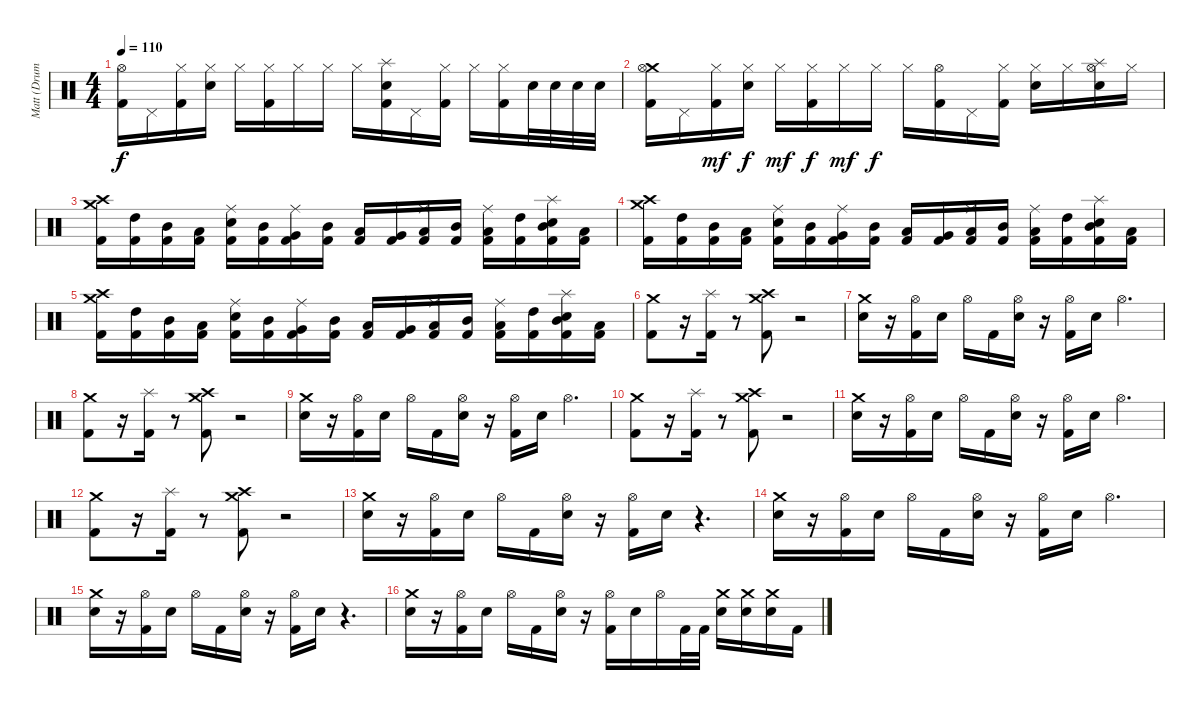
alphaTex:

\track ("Matt (Drums)" "Matt (Drum") {instrument percussion}
\staff {score}
\articulation defaults
\ts (4 4)
\tempo 110
\clef neutral
\ks c
("Hi-Hat (open)" "Kick (hit) 2").16{dy f} "Pedal Hi-Hat (hit)".16 ("Hi-Hat (closed)" "Kick (hit) 2").16 ("Hi-Hat (closed)" "Snare (hit) 2").16 "Hi-Hat (closed)".16 ("Hi-Hat (closed)" "Kick (hit) 2").16 "Hi-Hat (closed)".16 "Hi-Hat (closed)".16 "Hi-Hat (closed)".16 ("Splash (hit)" "Snare (hit) 2" "Kick (hit) 2").16 "Pedal Hi-Hat (hit)".16 ("Hi-Hat (closed)" "Kick (hit) 2").16 "Hi-Hat (closed)".16 ("Hi-Hat (closed)" "Kick (hit) 2").16 "Snare (hit) 2".32 "Snare (hit) 2".32 "Snare (hit) 2".32 "Snare (hit) 2".32 |
("Crash medium (hit)" "Hi-Hat (open)" "Kick (hit) 2").16 "Pedal Hi-Hat (hit)".16 ("Hi-Hat (closed)" "Kick (hit) 2").16{dy mf} ("Hi-Hat (closed)" "Snare (hit) 2").16{dy f} "Hi-Hat (closed)".16{dy mf} ("Hi-Hat (closed)" "Kick (hit) 2").16{dy f} "Hi-Hat (closed)".16{dy mf} "Hi-Hat (closed)".16{dy f} "Hi-Hat (closed)".16 ("Hi-Hat (open)" "Kick (hit) 2").16 "Pedal Hi-Hat (hit)".16 ("Hi-Hat (closed)" "Kick (hit) 2").16 ("Hi-Hat (closed)" "Snare (hit) 2").16 "Hi-Hat (closed)".16 ("Splash (hit)" "Hi-Hat (open)" "Snare (hit) 2").16 "Hi-Hat (closed)".16 |
("Crash medium (hit)" "Crash high (hit)" "Kick (hit) 2").16 ("High Tom (hit)" "Kick (hit) 2").16 ("Mid Tom (hit)" "Kick (hit) 2").16 ("Low Tom (hit)" "Kick (hit) 2").16 ("Ride (middle)" "Snare (hit) 2" "Kick (hit) 2").16 ("Mid Tom (hit)" "Kick (hit) 2").16 ("Ride (middle)" "Very Low Tom (hit)" "Kick (hit) 2").16 ("Mid Tom (hit)" "Kick (hit) 2").16 ("Low Tom (hit)" "Kick (hit) 2").16 ("Very Low Tom (hit)" "Kick (hit) 2").16 ("Ride (middle)" "Low Floor Tom (hit)" "Kick (hit) 2").16 ("Mid Tom (hit)" "Kick (hit) 2").16 ("Ride (middle)" "Low Tom (hit)" "Kick (hit) 2").16 ("High Tom (hit)" "Kick (hit) 2").16 ("Splash (hit)" "Mid Tom (hit)" "Snare (hit) 2" "Kick (hit) 2").16 ("Low Tom (hit)" "Kick (hit) 2").16 |
("Crash medium (hit)" "Crash high (hit)" "Kick (hit) 2").16 ("High Tom (hit)" "Kick (hit) 2").16 ("Mid Tom (hit)" "Kick (hit) 2").16 ("Low Tom (hit)" "Kick (hit) 2").16 ("Ride (middle)" "Snare (hit) 2" "Kick (hit) 2").16 ("Mid Tom (hit)" "Kick (hit) 2").16 ("Ride (middle)" "Very Low Tom (hit)" "Kick (hit) 2").16 ("Mid Tom (hit)" "Kick (hit) 2").16 ("Low Tom (hit)" "Kick (hit) 2").16 ("Very Low Tom (hit)" "Kick (hit) 2").16 ("Ride (middle)" "Low Floor Tom (hit)" "Kick (hit) 2").16 ("Mid Tom (hit)" "Kick (hit) 2").16 ("Ride (middle)" "Low Tom (hit)" "Kick (hit) 2").16 ("High Tom (hit)" "Kick (hit) 2").16 ("Splash (hit)" "Mid Tom (hit)" "Snare (hit) 2" "Kick (hit) 2").16 ("Low Tom (hit)" "Kick (hit) 2").16 |
("Crash medium (hit)" "Crash high (hit)" "Kick (hit) 2").16 ("High Tom (hit)" "Kick (hit) 2").16 ("Mid Tom (hit)" "Kick (hit) 2").16 ("Low Tom (hit)" "Kick (hit) 2").16 ("Ride (middle)" "Snare (hit) 2" "Kick (hit) 2").16 ("Mid Tom (hit)" "Kick (hit) 2").16 ("Ride (middle)" "Very Low Tom (hit)" "Kick (hit) 2").16 ("Mid Tom (hit)" "Kick (hit) 2").16 ("Low Tom (hit)" "Kick (hit) 2").16 ("Very Low Tom (hit)" "Kick (hit) 2").16 ("Ride (middle)" "Low Floor Tom (hit)" "Kick (hit) 2").16 ("Mid Tom (hit)" "Kick (hit) 2").16 ("Ride (middle)" "Low Tom (hit)" "Kick (hit) 2").16 ("High Tom (hit)" "Kick (hit) 2").16 ("Splash (hit)" "Mid Tom (hit)" "Snare (hit) 2" "Kick (hit) 2").16 ("Low Tom (hit)" "Kick (hit) 2").16 |
("Crash medium (hit)" "Kick (hit) 2").8 r.16 ("Splash (hit)" "Kick (hit) 2").16 r.8 ("Crash medium (hit)" "Crash high (hit)" "Kick (hit) 2").8 r.2 |
("Crash medium (hit)" "Snare (hit) 2").16 r.16 ("Hi-Hat (open)" "Kick (hit) 2").16 "Snare (hit) 2".16 "Hi-Hat (open)".16 "Kick (hit) 2".16 ("Hi-Hat (open)" "Snare (hit) 2").16 r.16 ("Hi-Hat (open)" "Kick (hit) 2").16 "Snare (hit) 2".16 "Hi-Hat (open)".4{d} |
("Crash medium (hit)" "Kick (hit) 2").8 r.16 ("Splash (hit)" "Kick (hit) 2").16 r.8 ("Crash medium (hit)" "Crash high (hit)" "Kick (hit) 2").8 r.2 |
("Crash medium (hit)" "Snare (hit) 2").16 r.16 ("Hi-Hat (open)" "Kick (hit) 2").16 "Snare (hit) 2".16 "Hi-Hat (open)".16 "Kick (hit) 2".16 ("Hi-Hat (open)" "Snare (hit) 2").16 r.16 ("Hi-Hat (open)" "Kick (hit) 2").16 "Snare (hit) 2".16 "Hi-Hat (open)".4{d} |
("Crash medium (hit)" "Kick (hit) 2").8 r.16 ("Splash (hit)" "Kick (hit) 2").16 r.8 ("Crash medium (hit)" "Crash high (hit)" "Kick (hit) 2").8 r.2 |
("Crash medium (hit)" "Snare (hit) 2").16 r.16 ("Hi-Hat (open)" "Kick (hit) 2").16 "Snare (hit) 2".16 "Hi-Hat (open)".16 "Kick (hit) 2".16 ("Hi-Hat (open)" "Snare (hit) 2").16 r.16 ("Hi-Hat (open)" "Kick (hit) 2").16 "Snare (hit) 2".16 "Hi-Hat (open)".4{d} |
("Crash medium (hit)" "Kick (hit) 2").8 r.16 ("Splash (hit)" "Kick (hit) 2").16 r.8 ("Crash medium (hit)" "Crash high (hit)" "Kick (hit) 2").8 r.2 |
("Crash medium (hit)" "Snare (hit) 2").16 r.16 ("Hi-Hat (open)" "Kick (hit) 2").16 "Snare (hit) 2".16 "Hi-Hat (open)".16 "Kick (hit) 2".16 ("Hi-Hat (open)" "Snare (hit) 2").16 r.16 ("Hi-Hat (open)" "Kick (hit) 2").16 "Snare (hit) 2".16 r.4{d} |
("Crash medium (hit)" "Snare (hit) 2").16 r.16 ("Hi-Hat (open)" "Kick (hit) 2").16 "Snare (hit) 2".16 "Hi-Hat (open)".16 "Kick (hit) 2".16 ("Hi-Hat (open)" "Snare (hit) 2").16 r.16 ("Hi-Hat (open)" "Kick (hit) 2").16 "Snare (hit) 2".16 "Hi-Hat (open)".4{d} |
("Crash medium (hit)" "Snare (hit) 2").16 r.16 ("Hi-Hat (open)" "Kick (hit) 2").16 "Snare (hit) 2".16 "Hi-Hat (open)".16 "Kick (hit) 2".16 ("Hi-Hat (open)" "Snare (hit) 2").16 r.16 ("Hi-Hat (open)" "Kick (hit) 2").16 "Snare (hit) 2".16 r.4{d} |
("Crash medium (hit)" "Snare (hit) 2").16 r.16 ("Hi-Hat (open)" "Kick (hit) 2").16 "Snare (hit) 2".16 "Hi-Hat (open)".16 "Kick (hit) 2".16 ("Hi-Hat (open)" "Snare (hit) 2").16 r.16 ("Hi-Hat (open)" "Kick (hit) 2").16 "Snare (hit) 2".16 "Hi-Hat (open)".16 "Kick (hit) 2".32 "Kick (hit) 2".32 ("Crash medium (hit)" "Snare (hit) 2").16 ("Crash medium (hit)" "Snare (hit) 2").16 ("Crash medium (hit)" "Snare (hit) 2").16 "Kick (hit) 2".16
